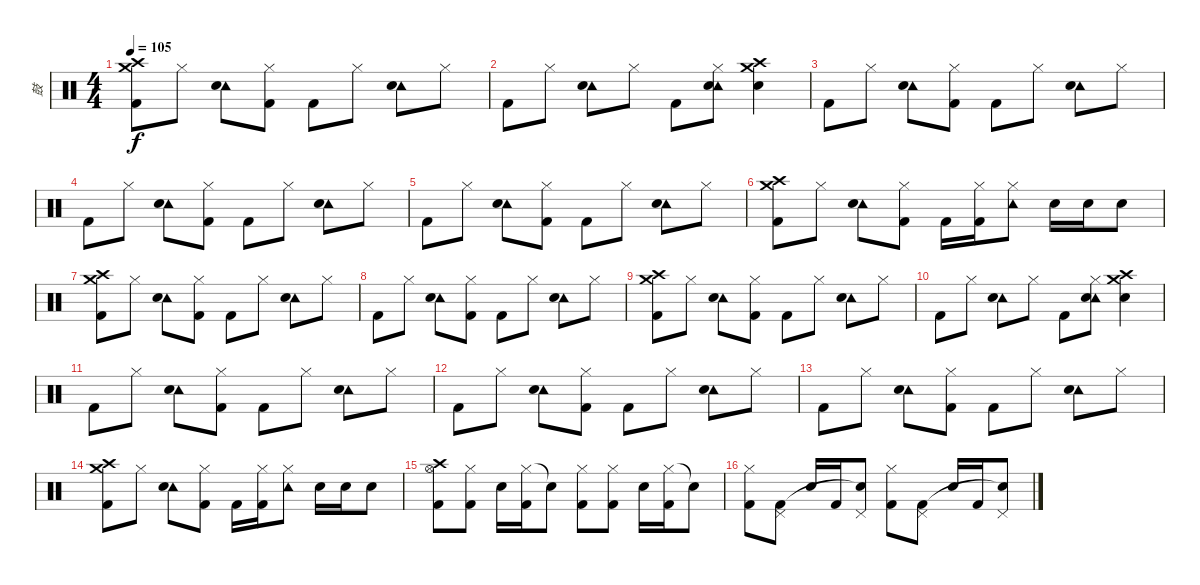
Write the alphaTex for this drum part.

\track ("鼓" "鼓") {instrument percussion}
\staff {score}
\articulation defaults
\ts (4 4)
\tempo 105
\clef neutral
\ks c
("Crash high (hit)" "Crash medium (hit)" "Kick (hit) 2").8{dy f} "Hi-Hat (closed)".8 ("Tambourine (hit)" "Electric Snare (hit)").8 ("Hi-Hat (closed)" "Kick (hit) 2").8 "Kick (hit) 2".8 "Hi-Hat (closed)".8 ("Tambourine (hit)" "Electric Snare (hit)").8 "Hi-Hat (closed)".8 |
"Kick (hit) 2".8 "Hi-Hat (closed)".8 ("Tambourine (hit)" "Electric Snare (hit)").8 "Hi-Hat (closed)".8 "Kick (hit) 2".8 ("Hi-Hat (closed)" "Tambourine (hit)" "Electric Snare (hit)").8 ("Crash medium (hit)" "Crash high (hit)" "Electric Snare (hit)").4 |
"Kick (hit) 2".8 "Hi-Hat (closed)".8 ("Tambourine (hit)" "Electric Snare (hit)").8 ("Hi-Hat (closed)" "Kick (hit) 2").8 "Kick (hit) 2".8 "Hi-Hat (closed)".8 ("Tambourine (hit)" "Electric Snare (hit)").8 "Hi-Hat (closed)".8 |
"Kick (hit) 2".8 "Hi-Hat (closed)".8 ("Tambourine (hit)" "Electric Snare (hit)").8 ("Hi-Hat (closed)" "Kick (hit) 2").8 "Kick (hit) 2".8 "Hi-Hat (closed)".8 ("Tambourine (hit)" "Electric Snare (hit)").8 "Hi-Hat (closed)".8 |
"Kick (hit) 2".8 "Hi-Hat (closed)".8 ("Tambourine (hit)" "Electric Snare (hit)").8 ("Hi-Hat (closed)" "Kick (hit) 2").8 "Kick (hit) 2".8 "Hi-Hat (closed)".8 ("Tambourine (hit)" "Electric Snare (hit)").8 "Hi-Hat (closed)".8 |
("Crash high (hit)" "Crash medium (hit)" "Kick (hit) 2").8 "Hi-Hat (closed)".8 ("Tambourine (hit)" "Electric Snare (hit)").8 ("Hi-Hat (closed)" "Kick (hit) 2").8 "Kick (hit) 2".16 ("Hi-Hat (closed)" "Kick (hit) 2").16 ("Hi-Hat (closed)" "Tambourine (hit)").8 "Electric Snare (hit)".16 "Electric Snare (hit)".16 "Electric Snare (hit)".8 |
("Crash medium (hit)" "Crash high (hit)" "Kick (hit) 2").8 "Hi-Hat (closed)".8 ("Tambourine (hit)" "Electric Snare (hit)").8 ("Hi-Hat (closed)" "Kick (hit) 2").8 "Kick (hit) 2".8 "Hi-Hat (closed)".8 ("Tambourine (hit)" "Electric Snare (hit)").8 "Hi-Hat (closed)".8 |
"Kick (hit) 2".8 "Hi-Hat (closed)".8 ("Tambourine (hit)" "Electric Snare (hit)").8 ("Hi-Hat (closed)" "Kick (hit) 2").8 "Kick (hit) 2".8 "Hi-Hat (closed)".8 ("Tambourine (hit)" "Electric Snare (hit)").8 "Hi-Hat (closed)".8 |
("Crash high (hit)" "Crash medium (hit)" "Kick (hit) 2").8 "Hi-Hat (closed)".8 ("Tambourine (hit)" "Electric Snare (hit)").8 ("Hi-Hat (closed)" "Kick (hit) 2").8 "Kick (hit) 2".8 "Hi-Hat (closed)".8 ("Tambourine (hit)" "Electric Snare (hit)").8 "Hi-Hat (closed)".8 |
"Kick (hit) 2".8 "Hi-Hat (closed)".8 ("Tambourine (hit)" "Electric Snare (hit)").8 "Hi-Hat (closed)".8 "Kick (hit) 2".8 ("Hi-Hat (closed)" "Tambourine (hit)" "Electric Snare (hit)").8 ("Crash medium (hit)" "Crash high (hit)" "Electric Snare (hit)").4 |
"Kick (hit) 2".8 "Hi-Hat (closed)".8 ("Tambourine (hit)" "Electric Snare (hit)").8 ("Hi-Hat (closed)" "Kick (hit) 2").8 "Kick (hit) 2".8 "Hi-Hat (closed)".8 ("Tambourine (hit)" "Electric Snare (hit)").8 "Hi-Hat (closed)".8 |
"Kick (hit) 2".8 "Hi-Hat (closed)".8 ("Tambourine (hit)" "Electric Snare (hit)").8 ("Hi-Hat (closed)" "Kick (hit) 2").8 "Kick (hit) 2".8 "Hi-Hat (closed)".8 ("Tambourine (hit)" "Electric Snare (hit)").8 "Hi-Hat (closed)".8 |
"Kick (hit) 2".8 "Hi-Hat (closed)".8 ("Tambourine (hit)" "Electric Snare (hit)").8 ("Hi-Hat (closed)" "Kick (hit) 2").8 "Kick (hit) 2".8 "Hi-Hat (closed)".8 ("Tambourine (hit)" "Electric Snare (hit)").8 "Hi-Hat (closed)".8 |
("Crash high (hit)" "Crash medium (hit)" "Kick (hit) 2").8 "Hi-Hat (closed)".8 ("Tambourine (hit)" "Electric Snare (hit)").8 ("Hi-Hat (closed)" "Kick (hit) 2").8 "Kick (hit) 2".16 ("Hi-Hat (closed)" "Kick (hit) 2").16 ("Hi-Hat (closed)" "Tambourine (hit)").8 "Electric Snare (hit)".16 "Electric Snare (hit)".16 "Electric Snare (hit)".8 |
\section ("" "")
("Hi-Hat (open)" "Crash high (hit)" "Kick (hit) 2").8 ("Hi-Hat (closed)" "Kick (hit) 2").8 "Electric Snare (hit)".16 ("Hi-Hat (closed)" "Kick (hit) 2").16 "Snare (hit)"{t}.8 ("Hi-Hat (closed)" "Kick (hit) 2").8 ("Hi-Hat (closed)" "Kick (hit) 2").8 "Electric Snare (hit)".16 ("Hi-Hat (closed)" "Kick (hit) 2").16 "Snare (hit)"{t}.8 |
("Hi-Hat (closed)" "Kick (hit) 2").8 ("Pedal Hi-Hat (hit)" "Kick (hit) 2").8 "Electric Snare (hit)".16 "Kick (hit) 2".16 ("Pedal Hi-Hat (hit)" "Snare (hit)"{t}).8 ("Hi-Hat (closed)" "Kick (hit) 2").8 ("Pedal Hi-Hat (hit)" "Kick (hit) 2").8 "Electric Snare (hit)".16 "Kick (hit) 2".16 ("Pedal Hi-Hat (hit)" "Snare (hit)"{t}).8
